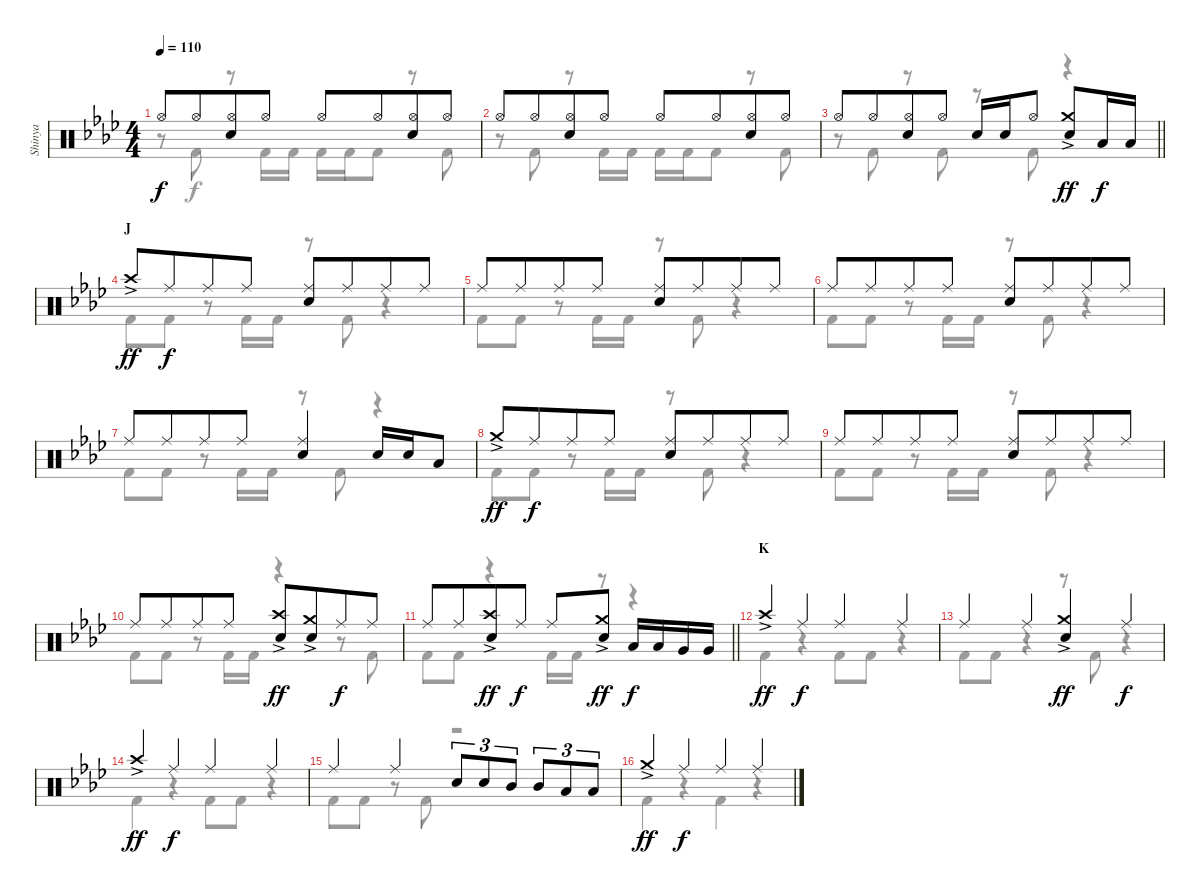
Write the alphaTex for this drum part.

\track ("Shinya" "Shinya") {instrument percussion}
\staff {score}
\articulation defaults
\voice
\ts (4 4)
\tempo 110
\clef neutral
\ks fminor "Hi-Hat (open)".8{dy f} "Hi-Hat (open)".8{beam merge}
("Hi-Hat (open)" "Snare (hit) 2").8 "Hi-Hat (open)".8 "Hi-Hat (open)".8 "Hi-Hat (open)".8{beam merge} ("Hi-Hat (open)" "Snare (hit) 2").8 "Hi-Hat (open)".8 |
"Hi-Hat (open)".8 "Hi-Hat (open)".8{beam merge} ("Hi-Hat (open)" "Snare (hit) 2").8 "Hi-Hat (open)".8 "Hi-Hat (open)".8 "Hi-Hat (open)".8{beam merge} ("Hi-Hat (open)" "Snare (hit) 2").8 "Hi-Hat (open)".8 |
\barLineRight lightlight "Hi-Hat (open)".8 "Hi-Hat (open)".8{beam merge}
("Hi-Hat (open)" "Snare (hit) 2").8 "Hi-Hat (open)".8 "Snare (hit) 2".16 "Snare (hit) 2".16 "Hi-Hat (open)".8 ("Crash medium (hit)"{ac} "Snare (hit) 2").8{dy ff} "Low Tom (hit)".16{dy f} "Low Tom (hit)".16 |
\section ("" "J")
"Crash high (hit)"{ac}.8{dy ff} "Ride (middle)".8{dy f beam merge} "Ride (middle)".8 "Ride (middle)".8 ("Ride (middle)" "Snare (hit) 2").8 "Ride (middle)".8{beam merge} "Ride (middle)".8 "Ride (middle)".8 |
"Ride (middle)".8 "Ride (middle)".8{beam merge} "Ride (middle)".8 "Ride (middle)".8 ("Ride (middle)" "Snare (hit) 2").8 "Ride (middle)".8{beam merge} "Ride (middle)".8 "Ride (middle)".8 |
"Ride (middle)".8 "Ride (middle)".8{beam merge} "Ride (middle)".8 "Ride (middle)".8 ("Ride (middle)" "Snare (hit) 2").8 "Ride (middle)".8{beam merge} "Ride (middle)".8 "Ride (middle)".8 |
"Ride (middle)".8 "Ride (middle)".8{beam merge} "Ride (middle)".8 "Ride (middle)".8 ("Ride (middle)" "Snare (hit) 2").4 "Snare (hit) 2".16 "Snare (hit) 2".16 "Low Tom (hit)".8 |
"Crash medium (hit)"{ac}.8{dy ff} "Ride (middle)".8{dy f beam merge} "Ride (middle)".8 "Ride (middle)".8 ("Ride (middle)" "Snare (hit) 2").8 "Ride (middle)".8{beam merge} "Ride (middle)".8 "Ride (middle)".8 |
"Ride (middle)".8 "Ride (middle)".8{beam merge} "Ride (middle)".8 "Ride (middle)".8 ("Ride (middle)" "Snare (hit) 2").8 "Ride (middle)".8{beam merge} "Ride (middle)".8 "Ride (middle)".8 |
"Ride (middle)".8 "Ride (middle)".8{beam merge} "Ride (middle)".8 "Ride (middle)".8 ("Crash high (hit)"{ac} "Snare (hit) 2").8{dy ff} ("Crash medium (hit)"{ac} "Snare (hit) 2").8{beam merge} "Ride (middle)".8{dy f} "Ride (middle)".8 |
\barLineRight lightlight "Ride (middle)".8 "Ride (middle)".8{beam merge}
("Crash high (hit)"{ac} "Snare (hit) 2").8{dy ff} "Ride (middle)".8{dy f} "Ride (middle)".8 ("Crash medium (hit)"{ac} "Snare (hit) 2").8{dy ff} "Low Tom (hit)".16{dy f} "Low Tom (hit)".16 "Very Low Tom (hit)".16 "Very Low Tom (hit)".16 |
\section ("" "K")
"Crash high (hit)"{ac}.4{dy ff} "Ride (middle)".4{dy f} "Ride (middle)".4 "Ride (middle)".4 |
"Ride (middle)".4 "Ride (middle)".4 ("Crash medium (hit)"{ac} "Snare (hit) 2").4{dy ff} "Ride (middle)".4{dy f} |
"Crash high (hit)"{ac}.4{dy ff} "Ride (middle)".4{dy f} "Ride (middle)".4 "Ride (middle)".4 |
"Ride (middle)".4 "Ride (middle)".4 "Snare (hit) 2".8{tu (3 2)} "Snare (hit) 2".8{tu (3 2)} "Mid Tom (hit)".8{tu (3 2)} "Mid Tom (hit)".8{tu (3 2)} "Low Tom (hit)".8{tu (3 2)} "Low Tom (hit)".8{tu (3 2)} |
"Crash medium (hit)"{ac}.4{dy ff} "Ride (middle)".4{dy f} "Ride (middle)".4 "Ride (middle)".4
\voice
\clef neutral
\ottava regular
\simile none
\ks fminor
r.8{dy f} "Kick (hit) 2".8 r.8 "Kick (hit) 2".16 "Kick (hit) 2".16 "Kick (hit) 2".16 "Kick (hit) 2".16 "Kick (hit) 2".8 r.8 "Kick (hit) 2".8 |
r.8 "Kick (hit) 2".8 r.8 "Kick (hit) 2".16 "Kick (hit) 2".16 "Kick (hit) 2".16 "Kick (hit) 2".16 "Kick (hit) 2".8 r.8 "Kick (hit) 2".8 |
\barLineRight lightlight
r.8 "Kick (hit) 2".8 r.8 "Kick (hit) 2".8 r.8 "Kick (hit) 2".8 r.4 |
"Kick (hit) 2".8 "Kick (hit) 2".8 r.8 "Kick (hit) 2".16 "Kick (hit) 2".16 r.8 "Kick (hit) 2".8 r.4 |
"Kick (hit) 2".8 "Kick (hit) 2".8 r.8 "Kick (hit) 2".16 "Kick (hit) 2".16 r.8 "Kick (hit) 2".8 r.4 |
"Kick (hit) 2".8 "Kick (hit) 2".8 r.8 "Kick (hit) 2".16 "Kick (hit) 2".16 r.8 "Kick (hit) 2".8 r.4 |
"Kick (hit) 2".8 "Kick (hit) 2".8 r.8 "Kick (hit) 2".16 "Kick (hit) 2".16 r.8 "Kick (hit) 2".8 r.4 |
"Kick (hit) 2".8 "Kick (hit) 2".8 r.8 "Kick (hit) 2".16 "Kick (hit) 2".16 r.8 "Kick (hit) 2".8 r.4 |
"Kick (hit) 2".8 "Kick (hit) 2".8 r.8 "Kick (hit) 2".16 "Kick (hit) 2".16 r.8 "Kick (hit) 2".8 r.4 |
"Kick (hit) 2".8 "Kick (hit) 2".8 r.8 "Kick (hit) 2".16 "Kick (hit) 2".16 r.4 r.8 "Kick (hit) 2".8 |
\barLineRight lightlight "Kick (hit) 2".8 "Kick (hit) 2".8
r.4 "Kick (hit) 2".16 "Kick (hit) 2".16 r.8 r.4 |
"Kick (hit) 2".4 r.4 "Kick (hit) 2".8 "Kick (hit) 2".8 r.4 |
"Kick (hit) 2".8 "Kick (hit) 2".8 r.4 r.8 "Kick (hit) 2".8 r.4 |
"Kick (hit) 2".4 r.4 "Kick (hit) 2".8 "Kick (hit) 2".8 r.4 |
"Kick (hit) 2".8 "Kick (hit) 2".8 r.8 "Kick (hit) 2".8 r.2 |
"Kick (hit) 2".4 r.4 "Kick (hit) 2".4 r.4
